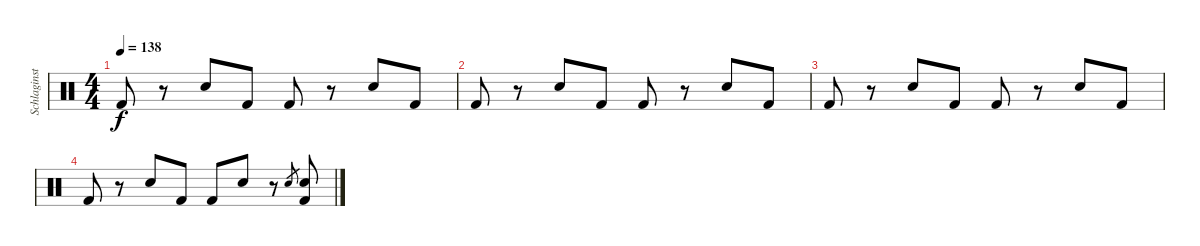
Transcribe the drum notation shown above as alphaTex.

\track ("Schlaginstrumente - Auswahl" "Schlaginst") {instrument percussion}
\staff {score}
\articulation defaults
\ts (4 4)
\tempo 138
\clef neutral
\ks c "Kick (hit) 2".8{dy f}
r.8 "Snare (hit) 2".8 "Kick (hit) 2".8 "Kick (hit) 2".8 r.8 "Snare (hit) 2".8 "Kick (hit) 2".8 |
"Kick (hit) 2".8 r.8 "Snare (hit) 2".8 "Kick (hit) 2".8 "Kick (hit) 2".8 r.8 "Snare (hit) 2".8 "Kick (hit) 2".8 |
"Kick (hit) 2".8 r.8 "Snare (hit) 2".8 "Kick (hit) 2".8 "Kick (hit) 2".8 r.8 "Snare (hit) 2".8 "Kick (hit) 2".8 |
"Kick (hit) 2".8 r.8 "Snare (hit) 2".8 "Kick (hit) 2".8 "Kick (hit) 2".8 "Snare (hit) 2".8 r.8 "Snare (hit) 2".8{gr} ("Snare (hit) 2" "Kick (hit) 2").8
